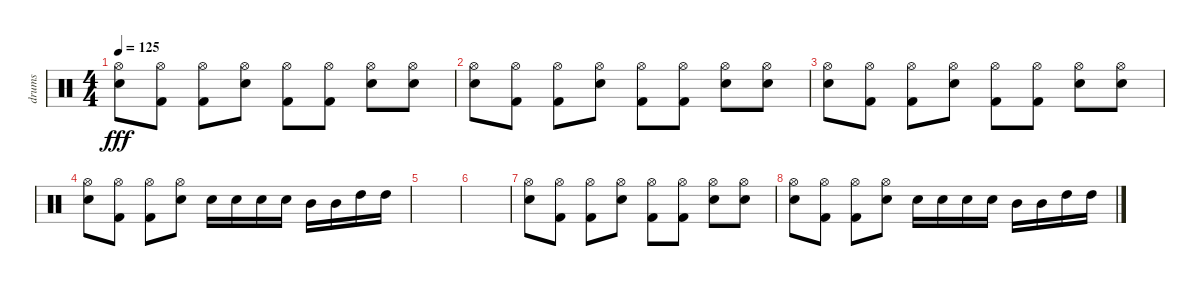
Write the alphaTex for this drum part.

\track ("drums" "drums") {instrument percussion}
\staff {score}
\articulation defaults
\ts (4 4)
\tempo 125
\clef neutral
\ks c
("Hi-Hat (open)" "Snare (hit) 2").8{dy fff} ("Hi-Hat (open)" "Kick (hit) 2").8 ("Hi-Hat (open)" "Kick (hit) 2").8 ("Hi-Hat (open)" "Snare (hit) 2").8 ("Hi-Hat (open)" "Kick (hit) 2").8 ("Hi-Hat (open)" "Kick (hit) 2").8 ("Hi-Hat (open)" "Snare (hit) 2").8 ("Hi-Hat (open)" "Snare (hit) 2").8 |
("Hi-Hat (open)" "Snare (hit) 2").8 ("Hi-Hat (open)" "Kick (hit) 2").8 ("Hi-Hat (open)" "Kick (hit) 2").8 ("Hi-Hat (open)" "Snare (hit) 2").8 ("Hi-Hat (open)" "Kick (hit) 2").8 ("Hi-Hat (open)" "Kick (hit) 2").8 ("Hi-Hat (open)" "Snare (hit) 2").8 ("Hi-Hat (open)" "Snare (hit) 2").8 |
("Hi-Hat (open)" "Snare (hit) 2").8 ("Hi-Hat (open)" "Kick (hit) 2").8 ("Hi-Hat (open)" "Kick (hit) 2").8 ("Hi-Hat (open)" "Snare (hit) 2").8 ("Hi-Hat (open)" "Kick (hit) 2").8 ("Hi-Hat (open)" "Kick (hit) 2").8 ("Hi-Hat (open)" "Snare (hit) 2").8 ("Hi-Hat (open)" "Snare (hit) 2").8 |
("Hi-Hat (open)" "Snare (hit) 2").8 ("Hi-Hat (open)" "Kick (hit) 2").8 ("Hi-Hat (open)" "Kick (hit) 2").8 ("Hi-Hat (open)" "Snare (hit) 2").8 "Snare (hit) 2".16 "Snare (hit) 2".16 "Snare (hit) 2".16 "Snare (hit) 2".16 "Mid Tom (hit)".16 "Mid Tom (hit)".16 "High Tom (hit)".16 "High Tom (hit)".16 |
|
|
("Hi-Hat (open)" "Snare (hit) 2").8 ("Hi-Hat (open)" "Kick (hit) 2").8 ("Hi-Hat (open)" "Kick (hit) 2").8 ("Hi-Hat (open)" "Snare (hit) 2").8 ("Hi-Hat (open)" "Kick (hit) 2").8 ("Hi-Hat (open)" "Kick (hit) 2").8 ("Hi-Hat (open)" "Snare (hit) 2").8 ("Hi-Hat (open)" "Snare (hit) 2").8 |
("Hi-Hat (open)" "Snare (hit) 2").8 ("Hi-Hat (open)" "Kick (hit) 2").8 ("Hi-Hat (open)" "Kick (hit) 2").8 ("Hi-Hat (open)" "Snare (hit) 2").8 "Snare (hit) 2".16 "Snare (hit) 2".16 "Snare (hit) 2".16 "Snare (hit) 2".16 "Mid Tom (hit)".16 "Mid Tom (hit)".16 "High Tom (hit)".16 "High Tom (hit)".16
